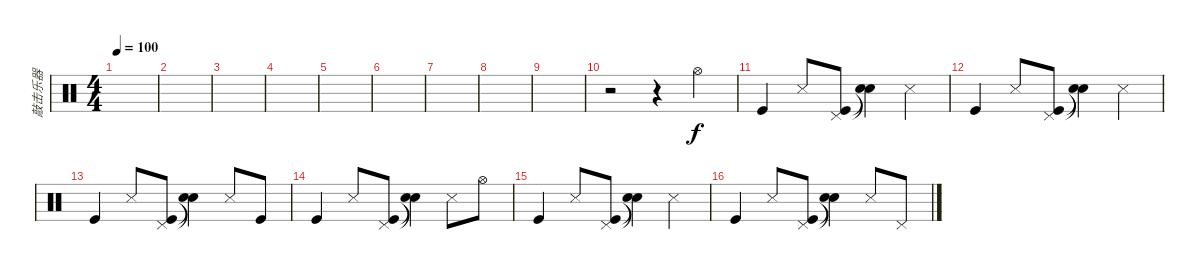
\track ("敲击乐器" "敲击乐器") {instrument percussion}
\staff {score}
\articulation defaults
\ts (4 4)
\tempo 100
\clef neutral
\ks c
|
|
|
|
|
|
|
|
|
r.2 r.4 "Hi-Hat (open)".4 |
"Kick (hit)".4 "Snare (side stick) 3".8 ("Pedal Hi-Hat (hit)" "Kick (hit)").8 ("Snare (hit)"{t} "Snare (hit)"{t}).4 "Snare (side stick) 3".4 |
"Kick (hit)".4 "Snare (side stick) 3".8 ("Pedal Hi-Hat (hit)" "Kick (hit)").8 ("Snare (hit)"{t} "Snare (hit)"{t}).4 "Snare (side stick) 3".4 |
"Kick (hit)".4 "Snare (side stick) 3".8 ("Pedal Hi-Hat (hit)" "Kick (hit)").8 ("Snare (hit)"{t} "Snare (hit)"{t}).4 "Snare (side stick) 3".8 "Kick (hit)".8 |
"Kick (hit)".4 "Snare (side stick) 3".8 ("Pedal Hi-Hat (hit)" "Kick (hit)").8 ("Snare (hit)"{t} "Snare (hit)"{t}).4 "Snare (side stick) 3".8 "Hi-Hat (open)".8 |
"Kick (hit)".4 "Snare (side stick) 3".8 ("Pedal Hi-Hat (hit)" "Kick (hit)").8 ("Snare (hit)"{t} "Snare (hit)"{t}).4 "Snare (side stick) 3".4 |
"Kick (hit)".4 "Snare (side stick) 3".8 ("Pedal Hi-Hat (hit)" "Kick (hit)").8 ("Snare (hit)"{t} "Snare (hit)"{t}).4 "Snare (side stick) 3".8 "Pedal Hi-Hat (hit)".8
